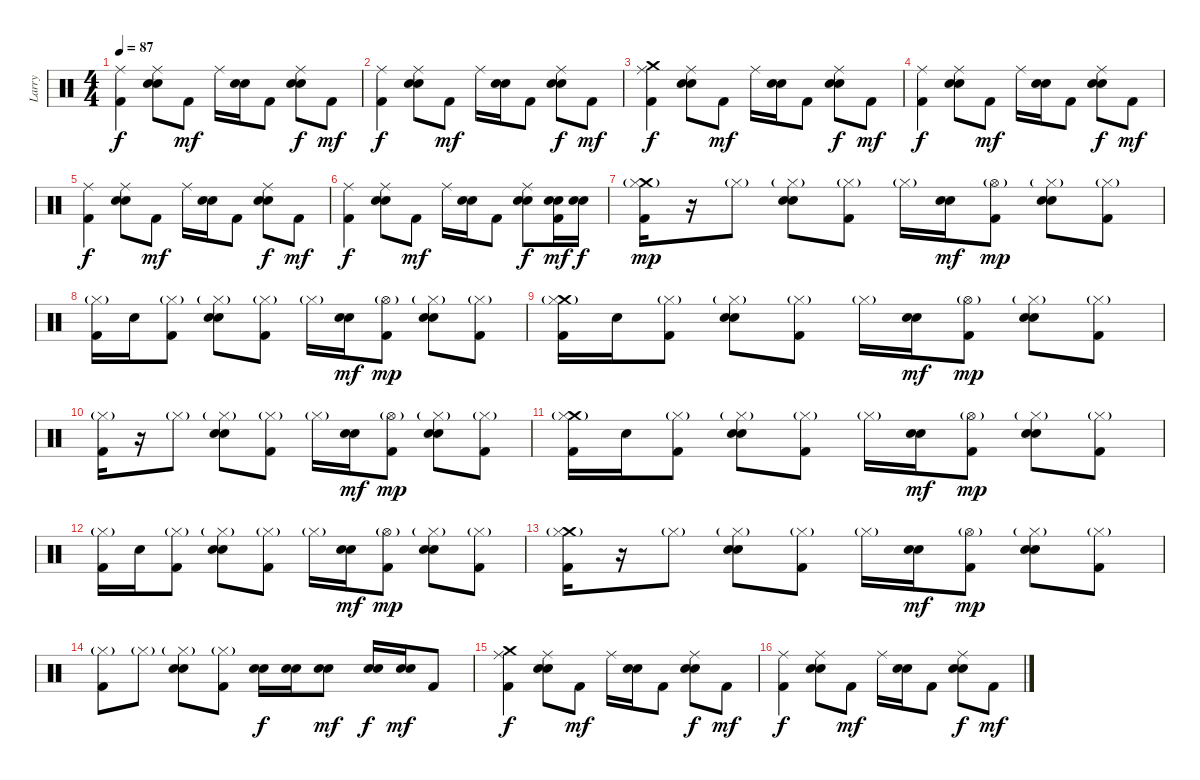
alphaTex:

\track ("Larry" "Larry") {instrument percussion}
\staff {score}
\articulation defaults
\ts (4 4)
\tempo 87
\clef neutral
\ks c
("Kick (hit) 2" "Ride (middle)").4{dy f} ("Snare (hit) 2" "Electric Snare (hit)" "Ride (middle)").8 "Kick (hit) 2".8{dy mf} "Ride (middle)".16 ("Snare (hit) 2" "Electric Snare (hit)").16 "Kick (hit) 2".8 ("Snare (hit) 2" "Electric Snare (hit)" "Ride (middle)").8{dy f} "Kick (hit) 2".8{dy mf} |
("Kick (hit) 2" "Ride (middle)").4{dy f} ("Snare (hit) 2" "Electric Snare (hit)" "Ride (middle)").8 "Kick (hit) 2".8{dy mf} "Ride (middle)".16 ("Snare (hit) 2" "Electric Snare (hit)").16 "Kick (hit) 2".8 ("Snare (hit) 2" "Electric Snare (hit)" "Ride (middle)").8{dy f} "Kick (hit) 2".8{dy mf} |
("Crash medium (hit)" "Kick (hit) 2" "Ride (middle)").4{dy f} ("Snare (hit) 2" "Electric Snare (hit)" "Ride (middle)").8 "Kick (hit) 2".8{dy mf} "Ride (middle)".16 ("Snare (hit) 2" "Electric Snare (hit)").16 "Kick (hit) 2".8 ("Snare (hit) 2" "Electric Snare (hit)" "Ride (middle)").8{dy f} "Kick (hit) 2".8{dy mf} |
("Kick (hit) 2" "Ride (middle)").4{dy f} ("Snare (hit) 2" "Electric Snare (hit)" "Ride (middle)").8 "Kick (hit) 2".8{dy mf} "Ride (middle)".16 ("Snare (hit) 2" "Electric Snare (hit)").16 "Kick (hit) 2".8 ("Snare (hit) 2" "Electric Snare (hit)" "Ride (middle)").8{dy f} "Kick (hit) 2".8{dy mf} |
("Kick (hit) 2" "Ride (middle)").4{dy f} ("Snare (hit) 2" "Electric Snare (hit)" "Ride (middle)").8 "Kick (hit) 2".8{dy mf} "Ride (middle)".16 ("Snare (hit) 2" "Electric Snare (hit)").16 "Kick (hit) 2".8 ("Snare (hit) 2" "Electric Snare (hit)" "Ride (middle)").8{dy f} "Kick (hit) 2".8{dy mf} |
("Kick (hit) 2" "Ride (middle)").4{dy f} ("Snare (hit) 2" "Electric Snare (hit)" "Ride (middle)").8 "Kick (hit) 2".8{dy mf} "Ride (middle)".16 ("Snare (hit) 2" "Electric Snare (hit)").16 "Kick (hit) 2".8 ("Snare (hit) 2" "Electric Snare (hit)" "Ride (middle)").8{dy f} ("Snare (hit) 2" "Electric Snare (hit)" "Kick (hit) 2").16{dy mf} ("Snare (hit) 2" "Electric Snare (hit)").16{dy f} |
("Crash medium (hit)" "Kick (hit) 2" "Hi-Hat (closed)"{g}).16{dy mp} r.16 "Hi-Hat (closed)"{g}.8 ("Snare (hit) 2" "Electric Snare (hit)" "Hi-Hat (closed)"{g}).8 ("Kick (hit) 2" "Hi-Hat (closed)"{g}).8 "Hi-Hat (closed)"{g}.16 ("Snare (hit) 2" "Electric Snare (hit)").16{dy mf} ("Kick (hit) 2" "Hi-Hat (open)"{g}).8{dy mp} ("Snare (hit) 2" "Electric Snare (hit)" "Hi-Hat (closed)"{g}).8 ("Kick (hit) 2" "Hi-Hat (closed)"{g}).8 |
("Kick (hit) 2" "Hi-Hat (closed)"{g}).16 "Electric Snare (hit)".16 ("Kick (hit) 2" "Hi-Hat (closed)"{g}).8 ("Snare (hit) 2" "Electric Snare (hit)" "Hi-Hat (closed)"{g}).8 ("Kick (hit) 2" "Hi-Hat (closed)"{g}).8 "Hi-Hat (closed)"{g}.16 ("Snare (hit) 2" "Electric Snare (hit)").16{dy mf} ("Kick (hit) 2" "Hi-Hat (open)"{g}).8{dy mp} ("Snare (hit) 2" "Electric Snare (hit)" "Hi-Hat (closed)"{g}).8 ("Kick (hit) 2" "Hi-Hat (closed)"{g}).8 |
("Crash medium (hit)" "Kick (hit) 2" "Hi-Hat (closed)"{g}).16 "Electric Snare (hit)".16 ("Kick (hit) 2" "Hi-Hat (closed)"{g}).8 ("Snare (hit) 2" "Electric Snare (hit)" "Hi-Hat (closed)"{g}).8 ("Kick (hit) 2" "Hi-Hat (closed)"{g}).8 "Hi-Hat (closed)"{g}.16 ("Snare (hit) 2" "Electric Snare (hit)").16{dy mf} ("Kick (hit) 2" "Hi-Hat (open)"{g}).8{dy mp} ("Snare (hit) 2" "Electric Snare (hit)" "Hi-Hat (closed)"{g}).8 ("Kick (hit) 2" "Hi-Hat (closed)"{g}).8 |
("Kick (hit) 2" "Hi-Hat (closed)"{g}).16 r.16 "Hi-Hat (closed)"{g}.8 ("Snare (hit) 2" "Electric Snare (hit)" "Hi-Hat (closed)"{g}).8 ("Kick (hit) 2" "Hi-Hat (closed)"{g}).8 "Hi-Hat (closed)"{g}.16 ("Snare (hit) 2" "Electric Snare (hit)").16{dy mf} ("Kick (hit) 2" "Hi-Hat (open)"{g}).8{dy mp} ("Snare (hit) 2" "Electric Snare (hit)" "Hi-Hat (closed)"{g}).8 ("Kick (hit) 2" "Hi-Hat (closed)"{g}).8 |
("Crash medium (hit)" "Kick (hit) 2" "Hi-Hat (closed)"{g}).16 "Electric Snare (hit)".16 ("Kick (hit) 2" "Hi-Hat (closed)"{g}).8 ("Snare (hit) 2" "Electric Snare (hit)" "Hi-Hat (closed)"{g}).8 ("Kick (hit) 2" "Hi-Hat (closed)"{g}).8 "Hi-Hat (closed)"{g}.16 ("Snare (hit) 2" "Electric Snare (hit)").16{dy mf} ("Kick (hit) 2" "Hi-Hat (open)"{g}).8{dy mp} ("Snare (hit) 2" "Electric Snare (hit)" "Hi-Hat (closed)"{g}).8 ("Kick (hit) 2" "Hi-Hat (closed)"{g}).8 |
("Kick (hit) 2" "Hi-Hat (closed)"{g}).16 "Electric Snare (hit)".16 ("Kick (hit) 2" "Hi-Hat (closed)"{g}).8 ("Snare (hit) 2" "Electric Snare (hit)" "Hi-Hat (closed)"{g}).8 ("Kick (hit) 2" "Hi-Hat (closed)"{g}).8 "Hi-Hat (closed)"{g}.16 ("Snare (hit) 2" "Electric Snare (hit)").16{dy mf} ("Kick (hit) 2" "Hi-Hat (open)"{g}).8{dy mp} ("Snare (hit) 2" "Electric Snare (hit)" "Hi-Hat (closed)"{g}).8 ("Kick (hit) 2" "Hi-Hat (closed)"{g}).8 |
("Crash medium (hit)" "Kick (hit) 2" "Hi-Hat (closed)"{g}).16 r.16 "Hi-Hat (closed)"{g}.8 ("Snare (hit) 2" "Electric Snare (hit)" "Hi-Hat (closed)"{g}).8 ("Kick (hit) 2" "Hi-Hat (closed)"{g}).8 "Hi-Hat (closed)"{g}.16 ("Snare (hit) 2" "Electric Snare (hit)").16{dy mf} ("Kick (hit) 2" "Hi-Hat (open)"{g}).8{dy mp} ("Snare (hit) 2" "Electric Snare (hit)" "Hi-Hat (closed)"{g}).8 ("Kick (hit) 2" "Hi-Hat (closed)"{g}).8 |
("Kick (hit) 2" "Hi-Hat (closed)"{g}).8 "Hi-Hat (closed)"{g}.8 ("Snare (hit) 2" "Electric Snare (hit)" "Hi-Hat (closed)"{g}).8 ("Kick (hit) 2" "Hi-Hat (closed)"{g}).8 ("Snare (hit) 2" "Electric Snare (hit)").16{dy f} ("Snare (hit) 2" "Electric Snare (hit)").16 ("Snare (hit) 2" "Electric Snare (hit)").8{dy mf} ("Snare (hit) 2" "Electric Snare (hit)").16{dy f} ("Snare (hit) 2" "Electric Snare (hit)").16{dy mf} "Kick (hit) 2".8 |
("Crash medium (hit)" "Kick (hit) 2" "Ride (middle)").4{dy f} ("Snare (hit) 2" "Electric Snare (hit)" "Ride (middle)").8 "Kick (hit) 2".8{dy mf} "Ride (middle)".16 ("Snare (hit) 2" "Electric Snare (hit)").16 "Kick (hit) 2".8 ("Snare (hit) 2" "Electric Snare (hit)" "Ride (middle)").8{dy f} "Kick (hit) 2".8{dy mf} |
("Kick (hit) 2" "Ride (middle)").4{dy f} ("Snare (hit) 2" "Electric Snare (hit)" "Ride (middle)").8 "Kick (hit) 2".8{dy mf} "Ride (middle)".16 ("Snare (hit) 2" "Electric Snare (hit)").16 "Kick (hit) 2".8 ("Snare (hit) 2" "Electric Snare (hit)" "Ride (middle)").8{dy f} "Kick (hit) 2".8{dy mf}
